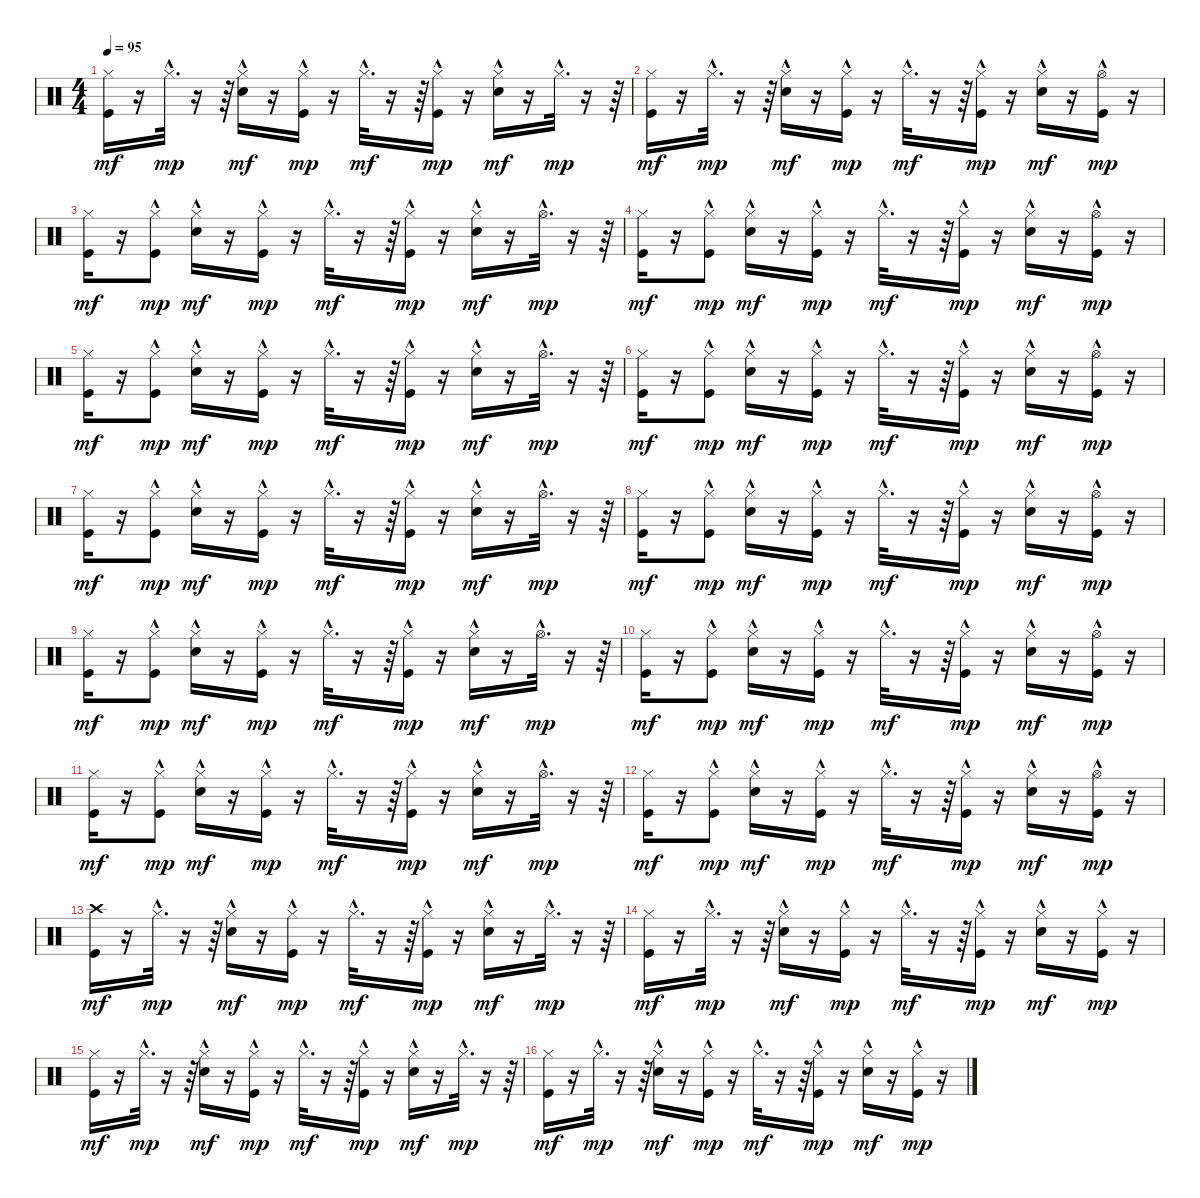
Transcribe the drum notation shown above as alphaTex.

\track "" {instrument percussion}
\staff {score}
\articulation defaults
\ts (4 4)
\tempo 95
\clef neutral
\ks c
("Kick (hit)" "Hi-Hat (closed)").16{dy mf} r.16 "Hi-Hat (closed)"{hac}.32{d dy mp} r.16 r.64 ("Electric Snare (hit)" "Hi-Hat (closed)"{hac}).16{dy mf} r.16 ("Kick (hit)" "Hi-Hat (closed)"{hac}).16{dy mp} r.16 "Hi-Hat (closed)"{hac}.32{d dy mf} r.16 r.64 ("Kick (hit)" "Hi-Hat (closed)"{hac}).16{dy mp} r.16 ("Electric Snare (hit)" "Hi-Hat (closed)"{hac}).16{dy mf} r.16 "Hi-Hat (closed)"{hac}.32{d dy mp} r.16 r.64 |
("Kick (hit)" "Hi-Hat (closed)").16{dy mf} r.16 "Hi-Hat (closed)"{hac}.32{d dy mp} r.16 r.64 ("Electric Snare (hit)" "Hi-Hat (closed)"{hac}).16{dy mf} r.16 ("Kick (hit)" "Hi-Hat (closed)"{hac}).16{dy mp} r.16 "Hi-Hat (closed)"{hac}.32{d dy mf} r.16 r.64 ("Kick (hit)" "Hi-Hat (closed)"{hac}).16{dy mp} r.16 ("Electric Snare (hit)" "Hi-Hat (closed)"{hac}).16{dy mf} r.16 ("Kick (hit)" "Hi-Hat (open)"{hac}).16{dy mp} r.16 |
("Kick (hit)" "Hi-Hat (closed)").16{dy mf} r.16 ("Kick (hit)" "Hi-Hat (closed)"{hac}).8{dy mp} ("Electric Snare (hit)" "Hi-Hat (closed)"{hac}).16{dy mf} r.16 ("Kick (hit)" "Hi-Hat (closed)"{hac}).16{dy mp} r.16 "Hi-Hat (closed)"{hac}.32{d dy mf} r.16 r.64 ("Kick (hit)" "Hi-Hat (closed)"{hac}).16{dy mp} r.16 ("Electric Snare (hit)" "Hi-Hat (closed)"{hac}).16{dy mf} r.16 "Hi-Hat (open)"{hac}.32{d dy mp} r.16 r.64 |
("Kick (hit)" "Hi-Hat (closed)").16{dy mf} r.16 ("Kick (hit)" "Hi-Hat (closed)"{hac}).8{dy mp} ("Electric Snare (hit)" "Hi-Hat (closed)"{hac}).16{dy mf} r.16 ("Kick (hit)" "Hi-Hat (closed)"{hac}).16{dy mp} r.16 "Hi-Hat (closed)"{hac}.32{d dy mf} r.16 r.64 ("Kick (hit)" "Hi-Hat (closed)"{hac}).16{dy mp} r.16 ("Electric Snare (hit)" "Hi-Hat (closed)"{hac}).16{dy mf} r.16 ("Kick (hit)" "Hi-Hat (open)"{hac}).16{dy mp} r.16 |
("Kick (hit)" "Hi-Hat (closed)").16{dy mf} r.16 ("Kick (hit)" "Hi-Hat (closed)"{hac}).8{dy mp} ("Electric Snare (hit)" "Hi-Hat (closed)"{hac}).16{dy mf} r.16 ("Kick (hit)" "Hi-Hat (closed)"{hac}).16{dy mp} r.16 "Hi-Hat (closed)"{hac}.32{d dy mf} r.16 r.64 ("Kick (hit)" "Hi-Hat (closed)"{hac}).16{dy mp} r.16 ("Electric Snare (hit)" "Hi-Hat (closed)"{hac}).16{dy mf} r.16 "Hi-Hat (open)"{hac}.32{d dy mp} r.16 r.64 |
("Kick (hit)" "Hi-Hat (closed)").16{dy mf} r.16 ("Kick (hit)" "Hi-Hat (closed)"{hac}).8{dy mp} ("Electric Snare (hit)" "Hi-Hat (closed)"{hac}).16{dy mf} r.16 ("Kick (hit)" "Hi-Hat (closed)"{hac}).16{dy mp} r.16 "Hi-Hat (closed)"{hac}.32{d dy mf} r.16 r.64 ("Kick (hit)" "Hi-Hat (closed)"{hac}).16{dy mp} r.16 ("Electric Snare (hit)" "Hi-Hat (closed)"{hac}).16{dy mf} r.16 ("Kick (hit)" "Hi-Hat (open)"{hac}).16{dy mp} r.16 |
("Kick (hit)" "Hi-Hat (closed)").16{dy mf} r.16 ("Kick (hit)" "Hi-Hat (closed)"{hac}).8{dy mp} ("Electric Snare (hit)" "Hi-Hat (closed)"{hac}).16{dy mf} r.16 ("Kick (hit)" "Hi-Hat (closed)"{hac}).16{dy mp} r.16 "Hi-Hat (closed)"{hac}.32{d dy mf} r.16 r.64 ("Kick (hit)" "Hi-Hat (closed)"{hac}).16{dy mp} r.16 ("Electric Snare (hit)" "Hi-Hat (closed)"{hac}).16{dy mf} r.16 "Hi-Hat (open)"{hac}.32{d dy mp} r.16 r.64 |
("Kick (hit)" "Hi-Hat (closed)").16{dy mf} r.16 ("Kick (hit)" "Hi-Hat (closed)"{hac}).8{dy mp} ("Electric Snare (hit)" "Hi-Hat (closed)"{hac}).16{dy mf} r.16 ("Kick (hit)" "Hi-Hat (closed)"{hac}).16{dy mp} r.16 "Hi-Hat (closed)"{hac}.32{d dy mf} r.16 r.64 ("Kick (hit)" "Hi-Hat (closed)"{hac}).16{dy mp} r.16 ("Electric Snare (hit)" "Hi-Hat (closed)"{hac}).16{dy mf} r.16 ("Kick (hit)" "Hi-Hat (open)"{hac}).16{dy mp} r.16 |
("Kick (hit)" "Hi-Hat (closed)").16{dy mf} r.16 ("Kick (hit)" "Hi-Hat (closed)"{hac}).8{dy mp} ("Electric Snare (hit)" "Hi-Hat (closed)"{hac}).16{dy mf} r.16 ("Kick (hit)" "Hi-Hat (closed)"{hac}).16{dy mp} r.16 "Hi-Hat (closed)"{hac}.32{d dy mf} r.16 r.64 ("Kick (hit)" "Hi-Hat (closed)"{hac}).16{dy mp} r.16 ("Electric Snare (hit)" "Hi-Hat (closed)"{hac}).16{dy mf} r.16 "Hi-Hat (open)"{hac}.32{d dy mp} r.16 r.64 |
("Kick (hit)" "Hi-Hat (closed)").16{dy mf} r.16 ("Kick (hit)" "Hi-Hat (closed)"{hac}).8{dy mp} ("Electric Snare (hit)" "Hi-Hat (closed)"{hac}).16{dy mf} r.16 ("Kick (hit)" "Hi-Hat (closed)"{hac}).16{dy mp} r.16 "Hi-Hat (closed)"{hac}.32{d dy mf} r.16 r.64 ("Kick (hit)" "Hi-Hat (closed)"{hac}).16{dy mp} r.16 ("Electric Snare (hit)" "Hi-Hat (closed)"{hac}).16{dy mf} r.16 ("Kick (hit)" "Hi-Hat (open)"{hac}).16{dy mp} r.16 |
("Kick (hit)" "Hi-Hat (closed)").16{dy mf} r.16 ("Kick (hit)" "Hi-Hat (closed)"{hac}).8{dy mp} ("Electric Snare (hit)" "Hi-Hat (closed)"{hac}).16{dy mf} r.16 ("Kick (hit)" "Hi-Hat (closed)"{hac}).16{dy mp} r.16 "Hi-Hat (closed)"{hac}.32{d dy mf} r.16 r.64 ("Kick (hit)" "Hi-Hat (closed)"{hac}).16{dy mp} r.16 ("Electric Snare (hit)" "Hi-Hat (closed)"{hac}).16{dy mf} r.16 "Hi-Hat (open)"{hac}.32{d dy mp} r.16 r.64 |
("Kick (hit)" "Hi-Hat (closed)").16{dy mf} r.16 ("Kick (hit)" "Hi-Hat (closed)"{hac}).8{dy mp} ("Electric Snare (hit)" "Hi-Hat (closed)"{hac}).16{dy mf} r.16 ("Kick (hit)" "Hi-Hat (closed)"{hac}).16{dy mp} r.16 "Hi-Hat (closed)"{hac}.32{d dy mf} r.16 r.64 ("Kick (hit)" "Hi-Hat (closed)"{hac}).16{dy mp} r.16 ("Electric Snare (hit)" "Hi-Hat (closed)"{hac}).16{dy mf} r.16 ("Kick (hit)" "Hi-Hat (open)"{hac}).16{dy mp} r.16 |
("Kick (hit)" "Crash high (hit)").16{dy mf} r.16 "Hi-Hat (closed)"{hac}.32{d dy mp} r.16 r.64 ("Electric Snare (hit)" "Hi-Hat (closed)"{hac}).16{dy mf} r.16 ("Kick (hit)" "Hi-Hat (closed)"{hac}).16{dy mp} r.16 "Hi-Hat (closed)"{hac}.32{d dy mf} r.16 r.64 ("Kick (hit)" "Hi-Hat (closed)"{hac}).16{dy mp} r.16 ("Electric Snare (hit)" "Hi-Hat (closed)"{hac}).16{dy mf} r.16 "Hi-Hat (closed)"{hac}.32{d dy mp} r.16 r.64 |
("Kick (hit)" "Hi-Hat (closed)").16{dy mf} r.16 "Hi-Hat (closed)"{hac}.32{d dy mp} r.16 r.64 ("Electric Snare (hit)" "Hi-Hat (closed)"{hac}).16{dy mf} r.16 ("Kick (hit)" "Hi-Hat (closed)"{hac}).16{dy mp} r.16 "Hi-Hat (closed)"{hac}.32{d dy mf} r.16 r.64 ("Kick (hit)" "Hi-Hat (closed)"{hac}).16{dy mp} r.16 ("Electric Snare (hit)" "Hi-Hat (closed)"{hac}).16{dy mf} r.16 ("Kick (hit)" "Hi-Hat (closed)"{hac}).16{dy mp} r.16 |
("Kick (hit)" "Hi-Hat (closed)").16{dy mf} r.16 "Hi-Hat (closed)"{hac}.32{d dy mp} r.16 r.64 ("Electric Snare (hit)" "Hi-Hat (closed)"{hac}).16{dy mf} r.16 ("Kick (hit)" "Hi-Hat (closed)"{hac}).16{dy mp} r.16 "Hi-Hat (closed)"{hac}.32{d dy mf} r.16 r.64 ("Kick (hit)" "Hi-Hat (closed)"{hac}).16{dy mp} r.16 ("Electric Snare (hit)" "Hi-Hat (closed)"{hac}).16{dy mf} r.16 "Hi-Hat (closed)"{hac}.32{d dy mp} r.16 r.64 |
("Kick (hit)" "Hi-Hat (closed)").16{dy mf} r.16 "Hi-Hat (closed)"{hac}.32{d dy mp} r.16 r.64 ("Electric Snare (hit)" "Hi-Hat (closed)"{hac}).16{dy mf} r.16 ("Kick (hit)" "Hi-Hat (closed)"{hac}).16{dy mp} r.16 "Hi-Hat (closed)"{hac}.32{d dy mf} r.16 r.64 ("Kick (hit)" "Hi-Hat (closed)"{hac}).16{dy mp} r.16 ("Electric Snare (hit)" "Hi-Hat (closed)"{hac}).16{dy mf} r.16 ("Kick (hit)" "Hi-Hat (closed)"{hac}).16{dy mp} r.16
